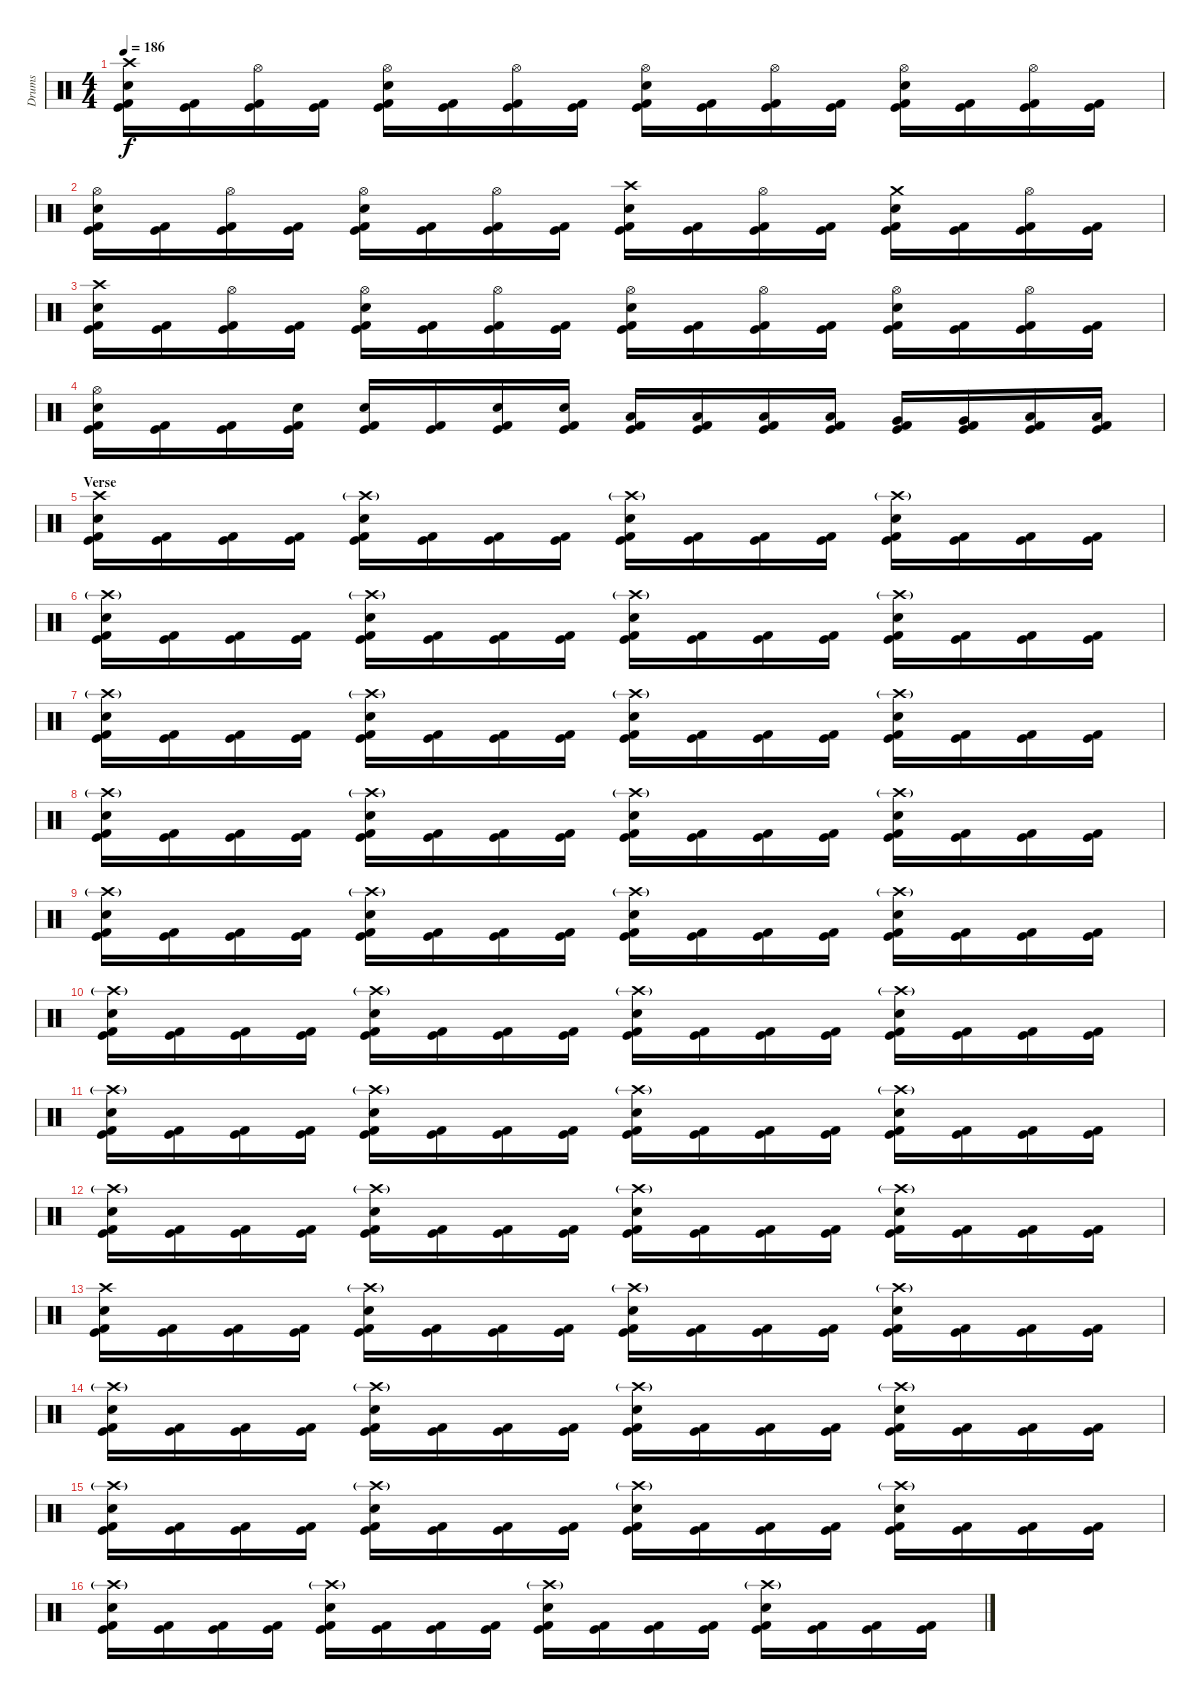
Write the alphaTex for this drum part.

\track ("Drums" "Drums") {instrument percussion}
\staff {score}
\articulation defaults
\ts (4 4)
\tempo 186
\clef neutral
\ks c
("Crash high (hit)" "Electric Snare (hit)" "Kick (hit)" "Kick (hit) 2").16{dy f} ("Kick (hit)" "Kick (hit) 2").16 ("Hi-Hat (open)" "Kick (hit)" "Kick (hit) 2").16 ("Kick (hit)" "Kick (hit) 2").16 ("Hi-Hat (open)" "Electric Snare (hit)" "Kick (hit)" "Kick (hit) 2").16 ("Kick (hit)" "Kick (hit) 2").16 ("Hi-Hat (open)" "Kick (hit)" "Kick (hit) 2").16 ("Kick (hit)" "Kick (hit) 2").16 ("Hi-Hat (open)" "Electric Snare (hit)" "Kick (hit)" "Kick (hit) 2").16 ("Kick (hit)" "Kick (hit) 2").16 ("Hi-Hat (open)" "Kick (hit)" "Kick (hit) 2").16 ("Kick (hit)" "Kick (hit) 2").16 ("Hi-Hat (open)" "Electric Snare (hit)" "Kick (hit)" "Kick (hit) 2").16 ("Kick (hit)" "Kick (hit) 2").16 ("Hi-Hat (open)" "Kick (hit)" "Kick (hit) 2").16 ("Kick (hit)" "Kick (hit) 2").16 |
("Hi-Hat (open)" "Electric Snare (hit)" "Kick (hit)" "Kick (hit) 2").16 ("Kick (hit)" "Kick (hit) 2").16 ("Hi-Hat (open)" "Kick (hit)" "Kick (hit) 2").16 ("Kick (hit)" "Kick (hit) 2").16 ("Hi-Hat (open)" "Electric Snare (hit)" "Kick (hit)" "Kick (hit) 2").16 ("Kick (hit)" "Kick (hit) 2").16 ("Hi-Hat (open)" "Kick (hit)" "Kick (hit) 2").16 ("Kick (hit)" "Kick (hit) 2").16 ("Crash high (hit)" "Electric Snare (hit)" "Kick (hit)" "Kick (hit) 2").16 ("Kick (hit)" "Kick (hit) 2").16 ("Hi-Hat (open)" "Kick (hit)" "Kick (hit) 2").16 ("Kick (hit)" "Kick (hit) 2").16 ("Crash medium (hit)" "Electric Snare (hit)" "Kick (hit)" "Kick (hit) 2").16 ("Kick (hit)" "Kick (hit) 2").16 ("Hi-Hat (open)" "Kick (hit)" "Kick (hit) 2").16 ("Kick (hit)" "Kick (hit) 2").16 |
("Crash high (hit)" "Electric Snare (hit)" "Kick (hit)" "Kick (hit) 2").16 ("Kick (hit)" "Kick (hit) 2").16 ("Hi-Hat (open)" "Kick (hit)" "Kick (hit) 2").16 ("Kick (hit)" "Kick (hit) 2").16 ("Hi-Hat (open)" "Electric Snare (hit)" "Kick (hit)" "Kick (hit) 2").16 ("Kick (hit)" "Kick (hit) 2").16 ("Hi-Hat (open)" "Kick (hit)" "Kick (hit) 2").16 ("Kick (hit)" "Kick (hit) 2").16 ("Hi-Hat (open)" "Electric Snare (hit)" "Kick (hit)" "Kick (hit) 2").16 ("Kick (hit)" "Kick (hit) 2").16 ("Hi-Hat (open)" "Kick (hit)" "Kick (hit) 2").16 ("Kick (hit)" "Kick (hit) 2").16 ("Hi-Hat (open)" "Electric Snare (hit)" "Kick (hit)" "Kick (hit) 2").16 ("Kick (hit)" "Kick (hit) 2").16 ("Hi-Hat (open)" "Kick (hit)" "Kick (hit) 2").16 ("Kick (hit)" "Kick (hit) 2").16 |
("Hi-Hat (open)" "Electric Snare (hit)" "Kick (hit)" "Kick (hit) 2").16 ("Kick (hit)" "Kick (hit) 2").16 ("Kick (hit)" "Kick (hit) 2").16 ("Electric Snare (hit)" "Kick (hit)" "Kick (hit) 2").16 ("Electric Snare (hit)" "Kick (hit)" "Kick (hit) 2").16 ("Kick (hit)" "Kick (hit) 2").16 ("Electric Snare (hit)" "Kick (hit)" "Kick (hit) 2").16 ("Electric Snare (hit)" "Kick (hit)" "Kick (hit) 2").16 ("Low Tom (hit)" "Kick (hit)" "Kick (hit) 2").16 ("Low Tom (hit)" "Kick (hit)" "Kick (hit) 2").16 ("Low Tom (hit)" "Kick (hit)" "Kick (hit) 2").16 ("Low Tom (hit)" "Kick (hit)" "Kick (hit) 2").16 ("Very Low Tom (hit)" "Kick (hit)" "Kick (hit) 2").16 ("Very Low Tom (hit)" "Kick (hit)" "Kick (hit) 2").16 ("Low Floor Tom (hit)" "Kick (hit)" "Kick (hit) 2").16 ("Low Floor Tom (hit)" "Kick (hit)" "Kick (hit) 2").16 |
\section ("" "Verse")
("Crash high (hit)" "Electric Snare (hit)" "Kick (hit)" "Kick (hit) 2").16 ("Kick (hit)" "Kick (hit) 2").16 ("Kick (hit)" "Kick (hit) 2").16 ("Kick (hit)" "Kick (hit) 2").16 ("Crash high (hit)"{g} "Electric Snare (hit)" "Kick (hit)" "Kick (hit) 2").16 ("Kick (hit)" "Kick (hit) 2").16 ("Kick (hit)" "Kick (hit) 2").16 ("Kick (hit)" "Kick (hit) 2").16 ("Crash high (hit)"{g} "Electric Snare (hit)" "Kick (hit)" "Kick (hit) 2").16 ("Kick (hit)" "Kick (hit) 2").16 ("Kick (hit)" "Kick (hit) 2").16 ("Kick (hit)" "Kick (hit) 2").16 ("Crash high (hit)"{g} "Electric Snare (hit)" "Kick (hit)" "Kick (hit) 2").16 ("Kick (hit)" "Kick (hit) 2").16 ("Kick (hit)" "Kick (hit) 2").16 ("Kick (hit)" "Kick (hit) 2").16 |
("Crash high (hit)"{g} "Electric Snare (hit)" "Kick (hit)" "Kick (hit) 2").16 ("Kick (hit)" "Kick (hit) 2").16 ("Kick (hit)" "Kick (hit) 2").16 ("Kick (hit)" "Kick (hit) 2").16 ("Crash high (hit)"{g} "Electric Snare (hit)" "Kick (hit)" "Kick (hit) 2").16 ("Kick (hit)" "Kick (hit) 2").16 ("Kick (hit)" "Kick (hit) 2").16 ("Kick (hit)" "Kick (hit) 2").16 ("Crash high (hit)"{g} "Electric Snare (hit)" "Kick (hit)" "Kick (hit) 2").16 ("Kick (hit)" "Kick (hit) 2").16 ("Kick (hit)" "Kick (hit) 2").16 ("Kick (hit)" "Kick (hit) 2").16 ("Crash high (hit)"{g} "Electric Snare (hit)" "Kick (hit)" "Kick (hit) 2").16 ("Kick (hit)" "Kick (hit) 2").16 ("Kick (hit)" "Kick (hit) 2").16 ("Kick (hit)" "Kick (hit) 2").16 |
("Crash high (hit)"{g} "Electric Snare (hit)" "Kick (hit)" "Kick (hit) 2").16 ("Kick (hit)" "Kick (hit) 2").16 ("Kick (hit)" "Kick (hit) 2").16 ("Kick (hit)" "Kick (hit) 2").16 ("Crash high (hit)"{g} "Electric Snare (hit)" "Kick (hit)" "Kick (hit) 2").16 ("Kick (hit)" "Kick (hit) 2").16 ("Kick (hit)" "Kick (hit) 2").16 ("Kick (hit)" "Kick (hit) 2").16 ("Crash high (hit)"{g} "Electric Snare (hit)" "Kick (hit)" "Kick (hit) 2").16 ("Kick (hit)" "Kick (hit) 2").16 ("Kick (hit)" "Kick (hit) 2").16 ("Kick (hit)" "Kick (hit) 2").16 ("Crash high (hit)"{g} "Electric Snare (hit)" "Kick (hit)" "Kick (hit) 2").16 ("Kick (hit)" "Kick (hit) 2").16 ("Kick (hit)" "Kick (hit) 2").16 ("Kick (hit)" "Kick (hit) 2").16 |
("Crash high (hit)"{g} "Electric Snare (hit)" "Kick (hit)" "Kick (hit) 2").16 ("Kick (hit)" "Kick (hit) 2").16 ("Kick (hit)" "Kick (hit) 2").16 ("Kick (hit)" "Kick (hit) 2").16 ("Crash high (hit)"{g} "Electric Snare (hit)" "Kick (hit)" "Kick (hit) 2").16 ("Kick (hit)" "Kick (hit) 2").16 ("Kick (hit)" "Kick (hit) 2").16 ("Kick (hit)" "Kick (hit) 2").16 ("Crash high (hit)"{g} "Electric Snare (hit)" "Kick (hit)" "Kick (hit) 2").16 ("Kick (hit)" "Kick (hit) 2").16 ("Kick (hit)" "Kick (hit) 2").16 ("Kick (hit)" "Kick (hit) 2").16 ("Crash high (hit)"{g} "Electric Snare (hit)" "Kick (hit)" "Kick (hit) 2").16 ("Kick (hit)" "Kick (hit) 2").16 ("Kick (hit)" "Kick (hit) 2").16 ("Kick (hit)" "Kick (hit) 2").16 |
("Crash high (hit)"{g} "Electric Snare (hit)" "Kick (hit)" "Kick (hit) 2").16 ("Kick (hit)" "Kick (hit) 2").16 ("Kick (hit)" "Kick (hit) 2").16 ("Kick (hit)" "Kick (hit) 2").16 ("Crash high (hit)"{g} "Electric Snare (hit)" "Kick (hit)" "Kick (hit) 2").16 ("Kick (hit)" "Kick (hit) 2").16 ("Kick (hit)" "Kick (hit) 2").16 ("Kick (hit)" "Kick (hit) 2").16 ("Crash high (hit)"{g} "Electric Snare (hit)" "Kick (hit)" "Kick (hit) 2").16 ("Kick (hit)" "Kick (hit) 2").16 ("Kick (hit)" "Kick (hit) 2").16 ("Kick (hit)" "Kick (hit) 2").16 ("Crash high (hit)"{g} "Electric Snare (hit)" "Kick (hit)" "Kick (hit) 2").16 ("Kick (hit)" "Kick (hit) 2").16 ("Kick (hit)" "Kick (hit) 2").16 ("Kick (hit)" "Kick (hit) 2").16 |
("Crash high (hit)"{g} "Electric Snare (hit)" "Kick (hit)" "Kick (hit) 2").16 ("Kick (hit)" "Kick (hit) 2").16 ("Kick (hit)" "Kick (hit) 2").16 ("Kick (hit)" "Kick (hit) 2").16 ("Crash high (hit)"{g} "Electric Snare (hit)" "Kick (hit)" "Kick (hit) 2").16 ("Kick (hit)" "Kick (hit) 2").16 ("Kick (hit)" "Kick (hit) 2").16 ("Kick (hit)" "Kick (hit) 2").16 ("Crash high (hit)"{g} "Electric Snare (hit)" "Kick (hit)" "Kick (hit) 2").16 ("Kick (hit)" "Kick (hit) 2").16 ("Kick (hit)" "Kick (hit) 2").16 ("Kick (hit)" "Kick (hit) 2").16 ("Crash high (hit)"{g} "Electric Snare (hit)" "Kick (hit)" "Kick (hit) 2").16 ("Kick (hit)" "Kick (hit) 2").16 ("Kick (hit)" "Kick (hit) 2").16 ("Kick (hit)" "Kick (hit) 2").16 |
("Crash high (hit)"{g} "Electric Snare (hit)" "Kick (hit)" "Kick (hit) 2").16 ("Kick (hit)" "Kick (hit) 2").16 ("Kick (hit)" "Kick (hit) 2").16 ("Kick (hit)" "Kick (hit) 2").16 ("Crash high (hit)"{g} "Electric Snare (hit)" "Kick (hit)" "Kick (hit) 2").16 ("Kick (hit)" "Kick (hit) 2").16 ("Kick (hit)" "Kick (hit) 2").16 ("Kick (hit)" "Kick (hit) 2").16 ("Crash high (hit)"{g} "Electric Snare (hit)" "Kick (hit)" "Kick (hit) 2").16 ("Kick (hit)" "Kick (hit) 2").16 ("Kick (hit)" "Kick (hit) 2").16 ("Kick (hit)" "Kick (hit) 2").16 ("Crash high (hit)"{g} "Electric Snare (hit)" "Kick (hit)" "Kick (hit) 2").16 ("Kick (hit)" "Kick (hit) 2").16 ("Kick (hit)" "Kick (hit) 2").16 ("Kick (hit)" "Kick (hit) 2").16 |
("Crash high (hit)"{g} "Electric Snare (hit)" "Kick (hit)" "Kick (hit) 2").16 ("Kick (hit)" "Kick (hit) 2").16 ("Kick (hit)" "Kick (hit) 2").16 ("Kick (hit)" "Kick (hit) 2").16 ("Crash high (hit)"{g} "Electric Snare (hit)" "Kick (hit)" "Kick (hit) 2").16 ("Kick (hit)" "Kick (hit) 2").16 ("Kick (hit)" "Kick (hit) 2").16 ("Kick (hit)" "Kick (hit) 2").16 ("Crash high (hit)"{g} "Electric Snare (hit)" "Kick (hit)" "Kick (hit) 2").16 ("Kick (hit)" "Kick (hit) 2").16 ("Kick (hit)" "Kick (hit) 2").16 ("Kick (hit)" "Kick (hit) 2").16 ("Crash high (hit)"{g} "Electric Snare (hit)" "Kick (hit)" "Kick (hit) 2").16 ("Kick (hit)" "Kick (hit) 2").16 ("Kick (hit)" "Kick (hit) 2").16 ("Kick (hit)" "Kick (hit) 2").16 |
("Crash high (hit)" "Electric Snare (hit)" "Kick (hit)" "Kick (hit) 2").16 ("Kick (hit)" "Kick (hit) 2").16 ("Kick (hit)" "Kick (hit) 2").16 ("Kick (hit)" "Kick (hit) 2").16 ("Crash high (hit)"{g} "Electric Snare (hit)" "Kick (hit)" "Kick (hit) 2").16 ("Kick (hit)" "Kick (hit) 2").16 ("Kick (hit)" "Kick (hit) 2").16 ("Kick (hit)" "Kick (hit) 2").16 ("Crash high (hit)"{g} "Electric Snare (hit)" "Kick (hit)" "Kick (hit) 2").16 ("Kick (hit)" "Kick (hit) 2").16 ("Kick (hit)" "Kick (hit) 2").16 ("Kick (hit)" "Kick (hit) 2").16 ("Crash high (hit)"{g} "Electric Snare (hit)" "Kick (hit)" "Kick (hit) 2").16 ("Kick (hit)" "Kick (hit) 2").16 ("Kick (hit)" "Kick (hit) 2").16 ("Kick (hit)" "Kick (hit) 2").16 |
("Crash high (hit)"{g} "Electric Snare (hit)" "Kick (hit)" "Kick (hit) 2").16 ("Kick (hit)" "Kick (hit) 2").16 ("Kick (hit)" "Kick (hit) 2").16 ("Kick (hit)" "Kick (hit) 2").16 ("Crash high (hit)"{g} "Electric Snare (hit)" "Kick (hit)" "Kick (hit) 2").16 ("Kick (hit)" "Kick (hit) 2").16 ("Kick (hit)" "Kick (hit) 2").16 ("Kick (hit)" "Kick (hit) 2").16 ("Crash high (hit)"{g} "Electric Snare (hit)" "Kick (hit)" "Kick (hit) 2").16 ("Kick (hit)" "Kick (hit) 2").16 ("Kick (hit)" "Kick (hit) 2").16 ("Kick (hit)" "Kick (hit) 2").16 ("Crash high (hit)"{g} "Electric Snare (hit)" "Kick (hit)" "Kick (hit) 2").16 ("Kick (hit)" "Kick (hit) 2").16 ("Kick (hit)" "Kick (hit) 2").16 ("Kick (hit)" "Kick (hit) 2").16 |
("Crash high (hit)"{g} "Electric Snare (hit)" "Kick (hit)" "Kick (hit) 2").16 ("Kick (hit)" "Kick (hit) 2").16 ("Kick (hit)" "Kick (hit) 2").16 ("Kick (hit)" "Kick (hit) 2").16 ("Crash high (hit)"{g} "Electric Snare (hit)" "Kick (hit)" "Kick (hit) 2").16 ("Kick (hit)" "Kick (hit) 2").16 ("Kick (hit)" "Kick (hit) 2").16 ("Kick (hit)" "Kick (hit) 2").16 ("Crash high (hit)"{g} "Electric Snare (hit)" "Kick (hit)" "Kick (hit) 2").16 ("Kick (hit)" "Kick (hit) 2").16 ("Kick (hit)" "Kick (hit) 2").16 ("Kick (hit)" "Kick (hit) 2").16 ("Crash high (hit)"{g} "Electric Snare (hit)" "Kick (hit)" "Kick (hit) 2").16 ("Kick (hit)" "Kick (hit) 2").16 ("Kick (hit)" "Kick (hit) 2").16 ("Kick (hit)" "Kick (hit) 2").16 |
("Crash high (hit)"{g} "Electric Snare (hit)" "Kick (hit)" "Kick (hit) 2").16 ("Kick (hit)" "Kick (hit) 2").16 ("Kick (hit)" "Kick (hit) 2").16 ("Kick (hit)" "Kick (hit) 2").16 ("Crash high (hit)"{g} "Electric Snare (hit)" "Kick (hit)" "Kick (hit) 2").16 ("Kick (hit)" "Kick (hit) 2").16 ("Kick (hit)" "Kick (hit) 2").16 ("Kick (hit)" "Kick (hit) 2").16 ("Crash high (hit)"{g} "Electric Snare (hit)" "Kick (hit)" "Kick (hit) 2").16 ("Kick (hit)" "Kick (hit) 2").16 ("Kick (hit)" "Kick (hit) 2").16 ("Kick (hit)" "Kick (hit) 2").16 ("Crash high (hit)"{g} "Electric Snare (hit)" "Kick (hit)" "Kick (hit) 2").16 ("Kick (hit)" "Kick (hit) 2").16 ("Kick (hit)" "Kick (hit) 2").16 ("Kick (hit)" "Kick (hit) 2").16
